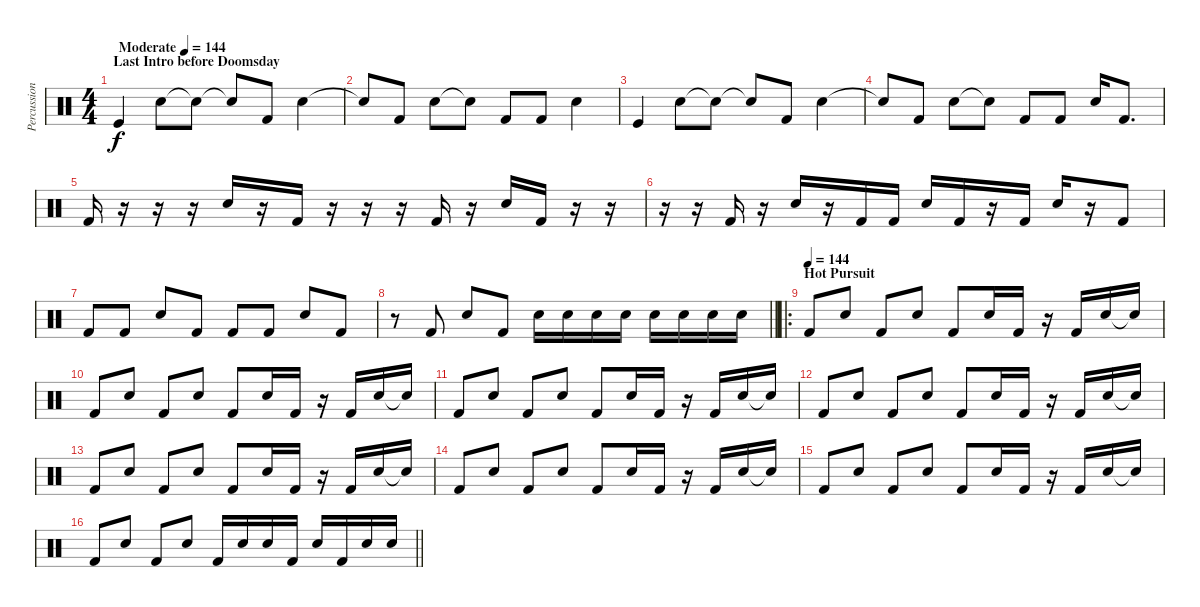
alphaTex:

\track ("Percussions" "Percussion") {instrument percussion}
\staff {score}
\articulation defaults
\ts (4 4)
\section ("" "Last Intro before Doomsday")
\tempo (144 "Moderate")
\clef neutral
\ks c "Kick (hit)".4{dy f} "Electric Snare (hit)".8 "Snare (hit)"{t}.8 "Snare (hit)"{t}.8 "Kick (hit) 2".8 "Electric Snare (hit)".4
|
"Snare (hit)"{t}.8 "Kick (hit) 2".8 "Electric Snare (hit)".8 "Snare (hit)"{t}.8 "Kick (hit) 2".8 "Kick (hit) 2".8 "Electric Snare (hit)".4 |
"Kick (hit)".4 "Electric Snare (hit)".8 "Snare (hit)"{t}.8 "Snare (hit)"{t}.8 "Kick (hit) 2".8 "Electric Snare (hit)".4 |
"Snare (hit)"{t}.8 "Kick (hit) 2".8 "Electric Snare (hit)".8 "Snare (hit)"{t}.8 "Kick (hit) 2".8 "Kick (hit) 2".8 "Electric Snare (hit)".16 "Kick (hit) 2".8{d} |
"Kick (hit) 2".16 r.16 r.16 r.16 "Electric Snare (hit)".16 r.16 "Kick (hit) 2".16 r.16 r.16 r.16 "Kick (hit) 2".16 r.16 "Electric Snare (hit)".16 "Kick (hit) 2".16 r.16 r.16 |
r.16 r.16 "Kick (hit) 2".16 r.16 "Electric Snare (hit)".16 r.16 "Kick (hit) 2".16 "Kick (hit) 2".16 "Electric Snare (hit)".16 "Kick (hit) 2".16 r.16 "Kick (hit) 2".16 "Electric Snare (hit)".16 r.16 "Kick (hit) 2".8 |
"Kick (hit) 2".8 "Kick (hit) 2".8 "Electric Snare (hit)".8 "Kick (hit) 2".8 "Kick (hit) 2".8 "Kick (hit) 2".8 "Electric Snare (hit)".8 "Kick (hit) 2".8 |
\barLineRight lightlight
r.8 "Kick (hit) 2".8 "Electric Snare (hit)".8 "Kick (hit) 2".8 "Electric Snare (hit)".16 "Electric Snare (hit)".16 "Electric Snare (hit)".16 "Electric Snare (hit)".16 "Electric Snare (hit)".16 "Electric Snare (hit)".16 "Electric Snare (hit)".16 "Electric Snare (hit)".16 |
\ro
\section ("" "Hot Pursuit")
\tempo (144)
"Kick (hit) 2".8 "Electric Snare (hit)".8 "Kick (hit) 2".8 "Electric Snare (hit)".8 "Kick (hit) 2".8 "Electric Snare (hit)".16 "Kick (hit) 2".16 r.16 "Kick (hit) 2".16 "Electric Snare (hit)".16 "Snare (hit)"{t}.16 |
"Kick (hit) 2".8 "Electric Snare (hit)".8 "Kick (hit) 2".8 "Electric Snare (hit)".8 "Kick (hit) 2".8 "Electric Snare (hit)".16 "Kick (hit) 2".16 r.16 "Kick (hit) 2".16 "Electric Snare (hit)".16 "Snare (hit)"{t}.16 |
"Kick (hit) 2".8 "Electric Snare (hit)".8 "Kick (hit) 2".8 "Electric Snare (hit)".8 "Kick (hit) 2".8 "Electric Snare (hit)".16 "Kick (hit) 2".16 r.16 "Kick (hit) 2".16 "Electric Snare (hit)".16 "Snare (hit)"{t}.16 |
"Kick (hit) 2".8 "Electric Snare (hit)".8 "Kick (hit) 2".8 "Electric Snare (hit)".8 "Kick (hit) 2".8 "Electric Snare (hit)".16 "Kick (hit) 2".16 r.16 "Kick (hit) 2".16 "Electric Snare (hit)".16 "Snare (hit)"{t}.16 |
"Kick (hit) 2".8 "Electric Snare (hit)".8 "Kick (hit) 2".8 "Electric Snare (hit)".8 "Kick (hit) 2".8 "Electric Snare (hit)".16 "Kick (hit) 2".16 r.16 "Kick (hit) 2".16 "Electric Snare (hit)".16 "Snare (hit)"{t}.16 |
"Kick (hit) 2".8 "Electric Snare (hit)".8 "Kick (hit) 2".8 "Electric Snare (hit)".8 "Kick (hit) 2".8 "Electric Snare (hit)".16 "Kick (hit) 2".16 r.16 "Kick (hit) 2".16 "Electric Snare (hit)".16 "Snare (hit)"{t}.16 |
"Kick (hit) 2".8 "Electric Snare (hit)".8 "Kick (hit) 2".8 "Electric Snare (hit)".8 "Kick (hit) 2".8 "Electric Snare (hit)".16 "Kick (hit) 2".16 r.16 "Kick (hit) 2".16 "Electric Snare (hit)".16 "Snare (hit)"{t}.16 |
\barLineRight lightlight "Kick (hit) 2".8 "Electric Snare (hit)".8 "Kick (hit) 2".8 "Electric Snare (hit)".8 "Kick (hit) 2".16 "Electric Snare (hit)".16 "Electric Snare (hit)".16 "Kick (hit) 2".16 "Electric Snare (hit)".16 "Kick (hit) 2".16 "Electric Snare (hit)".16 "Electric Snare (hit)".16
